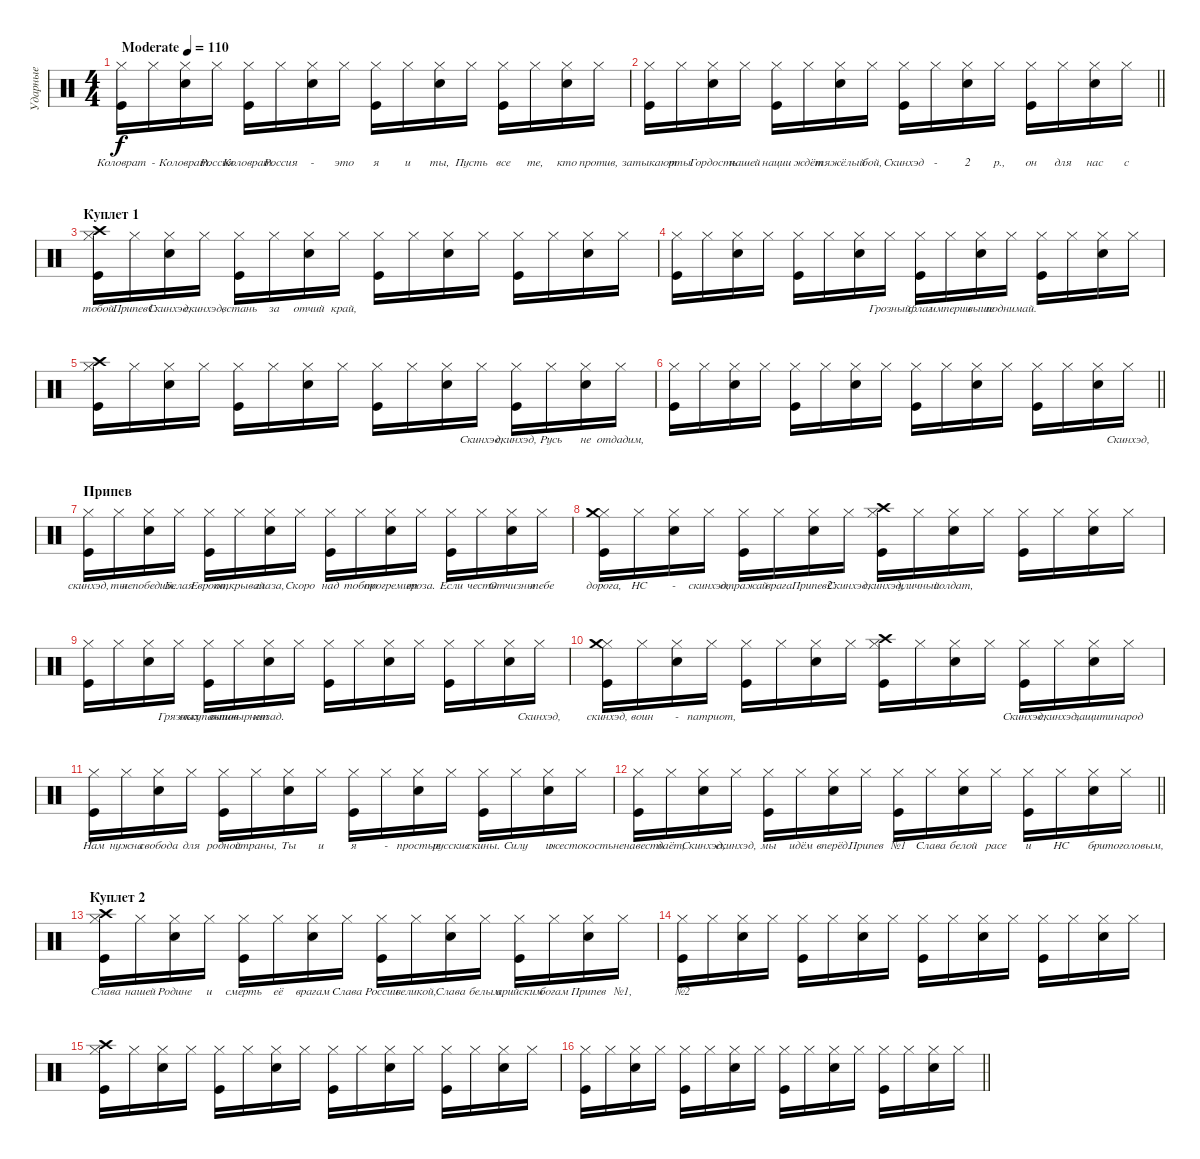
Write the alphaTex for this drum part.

\track ("Ударные" "Ударные") {instrument percussion}
\staff {score}
\articulation defaults
\ts (4 4)
\tempo (110 "Moderate")
\clef neutral
\ks c
("Kick (hit)" "Hi-Hat (closed)").16{lyrics (0 "Коловрат") lyrics (1 "") lyrics (2 "") lyrics (3 "") lyrics (4 "") dy f} "Hi-Hat (closed)".16{lyrics (0 "-") lyrics (1 "") lyrics (2 "") lyrics (3 "") lyrics (4 "")} ("Snare (hit) 2" "Hi-Hat (closed)").16{lyrics (0 "Коловрат.") lyrics (1 "") lyrics (2 "") lyrics (3 "") lyrics (4 "")} "Hi-Hat (closed)".16{lyrics (0 "Россия") lyrics (1 "") lyrics (2 "") lyrics (3 "") lyrics (4 "")} ("Kick (hit)" "Hi-Hat (closed)").16{lyrics (0 "Коловрат.") lyrics (1 "") lyrics (2 "") lyrics (3 "") lyrics (4 "")} "Hi-Hat (closed)".16{lyrics (0 "Россия") lyrics (1 "") lyrics (2 "") lyrics (3 "") lyrics (4 "")} ("Snare (hit) 2" "Hi-Hat (closed)").16{lyrics (0 "-") lyrics (1 "") lyrics (2 "") lyrics (3 "") lyrics (4 "")} "Hi-Hat (closed)".16{lyrics (0 "это") lyrics (1 "") lyrics (2 "") lyrics (3 "") lyrics (4 "")} ("Kick (hit)" "Hi-Hat (closed)").16{lyrics (0 "я") lyrics (1 "") lyrics (2 "") lyrics (3 "") lyrics (4 "")} "Hi-Hat (closed)".16{lyrics (0 "и") lyrics (1 "") lyrics (2 "") lyrics (3 "") lyrics (4 "")} ("Snare (hit) 2" "Hi-Hat (closed)").16{lyrics (0 "ты,") lyrics (1 "") lyrics (2 "") lyrics (3 "") lyrics (4 "")} "Hi-Hat (closed)".16{lyrics (0 "Пусть") lyrics (1 "") lyrics (2 "") lyrics (3 "") lyrics (4 "")} ("Kick (hit)" "Hi-Hat (closed)").16{lyrics (0 "все") lyrics (1 "") lyrics (2 "") lyrics (3 "") lyrics (4 "")} "Hi-Hat (closed)".16{lyrics (0 "те,") lyrics (1 "") lyrics (2 "") lyrics (3 "") lyrics (4 "")} ("Snare (hit) 2" "Hi-Hat (closed)").16{lyrics (0 "кто") lyrics (1 "") lyrics (2 "") lyrics (3 "") lyrics (4 "")} "Hi-Hat (closed)".16{lyrics (0 "против,") lyrics (1 "") lyrics (2 "") lyrics (3 "") lyrics (4 "")} |
\barLineRight lightlight
("Kick (hit)" "Hi-Hat (closed)").16{lyrics (0 "затыкают") lyrics (1 "") lyrics (2 "") lyrics (3 "") lyrics (4 "")} "Hi-Hat (closed)".16{lyrics (0 "рты.") lyrics (1 "") lyrics (2 "") lyrics (3 "") lyrics (4 "")} ("Snare (hit) 2" "Hi-Hat (closed)").16{lyrics (0 "Гордость") lyrics (1 "") lyrics (2 "") lyrics (3 "") lyrics (4 "")} "Hi-Hat (closed)".16{lyrics (0 "нашей") lyrics (1 "") lyrics (2 "") lyrics (3 "") lyrics (4 "")} ("Kick (hit)" "Hi-Hat (closed)").16{lyrics (0 "нации") lyrics (1 "") lyrics (2 "") lyrics (3 "") lyrics (4 "")} "Hi-Hat (closed)".16{lyrics (0 "ждёт") lyrics (1 "") lyrics (2 "") lyrics (3 "") lyrics (4 "")} ("Snare (hit) 2" "Hi-Hat (closed)").16{lyrics (0 "тяжёлый") lyrics (1 "") lyrics (2 "") lyrics (3 "") lyrics (4 "")} "Hi-Hat (closed)".16{lyrics (0 "бой,") lyrics (1 "") lyrics (2 "") lyrics (3 "") lyrics (4 "")} ("Kick (hit)" "Hi-Hat (closed)").16{lyrics (0 "Скинхэд") lyrics (1 "") lyrics (2 "") lyrics (3 "") lyrics (4 "")} "Hi-Hat (closed)".16{lyrics (0 "-") lyrics (1 "") lyrics (2 "") lyrics (3 "") lyrics (4 "")} ("Snare (hit) 2" "Hi-Hat (closed)").16{lyrics (0 "2") lyrics (1 "") lyrics (2 "") lyrics (3 "") lyrics (4 "")} "Hi-Hat (closed)".16{lyrics (0 "р.,") lyrics (1 "") lyrics (2 "") lyrics (3 "") lyrics (4 "")} ("Kick (hit)" "Hi-Hat (closed)").16{lyrics (0 "он") lyrics (1 "") lyrics (2 "") lyrics (3 "") lyrics (4 "")} "Hi-Hat (closed)".16{lyrics (0 "для") lyrics (1 "") lyrics (2 "") lyrics (3 "") lyrics (4 "")} ("Snare (hit) 2" "Hi-Hat (closed)").16{lyrics (0 "нас") lyrics (1 "") lyrics (2 "") lyrics (3 "") lyrics (4 "")} "Hi-Hat (closed)".16{lyrics (0 "с") lyrics (1 "") lyrics (2 "") lyrics (3 "") lyrics (4 "")} |
\section ("" "Куплет 1")
("Kick (hit)" "Hi-Hat (closed)" "Crash high (hit)").16{lyrics (0 "тобой.") lyrics (1 "") lyrics (2 "") lyrics (3 "") lyrics (4 "")} "Hi-Hat (closed)".16{lyrics (0 "Припев1:") lyrics (1 "") lyrics (2 "") lyrics (3 "") lyrics (4 "")} ("Snare (hit) 2" "Hi-Hat (closed)").16{lyrics (0 "Скинхэд,") lyrics (1 "") lyrics (2 "") lyrics (3 "") lyrics (4 "")} "Hi-Hat (closed)".16{lyrics (0 "скинхэд,") lyrics (1 "") lyrics (2 "") lyrics (3 "") lyrics (4 "")} ("Kick (hit)" "Hi-Hat (closed)").16{lyrics (0 "встань") lyrics (1 "") lyrics (2 "") lyrics (3 "") lyrics (4 "")} "Hi-Hat (closed)".16{lyrics (0 "за") lyrics (1 "") lyrics (2 "") lyrics (3 "") lyrics (4 "")} ("Snare (hit) 2" "Hi-Hat (closed)").16{lyrics (0 "отчий") lyrics (1 "") lyrics (2 "") lyrics (3 "") lyrics (4 "")} "Hi-Hat (closed)".16{lyrics (0 "край,") lyrics (1 "") lyrics (2 "") lyrics (3 "") lyrics (4 "")} ("Kick (hit)" "Hi-Hat (closed)").16{lyrics (0 "") lyrics (1 "") lyrics (2 "") lyrics (3 "") lyrics (4 "")} "Hi-Hat (closed)".16{lyrics (0 "") lyrics (1 "") lyrics (2 "") lyrics (3 "") lyrics (4 "")} ("Snare (hit) 2" "Hi-Hat (closed)").16{lyrics (0 "") lyrics (1 "") lyrics (2 "") lyrics (3 "") lyrics (4 "")} "Hi-Hat (closed)".16{lyrics (0 "") lyrics (1 "") lyrics (2 "") lyrics (3 "") lyrics (4 "")} ("Kick (hit)" "Hi-Hat (closed)").16{lyrics (0 "") lyrics (1 "") lyrics (2 "") lyrics (3 "") lyrics (4 "")} "Hi-Hat (closed)".16{lyrics (0 "") lyrics (1 "") lyrics (2 "") lyrics (3 "") lyrics (4 "")} ("Snare (hit) 2" "Hi-Hat (closed)").16{lyrics (0 "") lyrics (1 "") lyrics (2 "") lyrics (3 "") lyrics (4 "")} "Hi-Hat (closed)".16{lyrics (0 "") lyrics (1 "") lyrics (2 "") lyrics (3 "") lyrics (4 "")} |
("Kick (hit)" "Hi-Hat (closed)").16{lyrics (0 "") lyrics (1 "") lyrics (2 "") lyrics (3 "") lyrics (4 "")} "Hi-Hat (closed)".16{lyrics (0 "") lyrics (1 "") lyrics (2 "") lyrics (3 "") lyrics (4 "")} ("Snare (hit) 2" "Hi-Hat (closed)").16{lyrics (0 "") lyrics (1 "") lyrics (2 "") lyrics (3 "") lyrics (4 "")} "Hi-Hat (closed)".16{lyrics (0 "") lyrics (1 "") lyrics (2 "") lyrics (3 "") lyrics (4 "")} ("Kick (hit)" "Hi-Hat (closed)").16{lyrics (0 "") lyrics (1 "") lyrics (2 "") lyrics (3 "") lyrics (4 "")} "Hi-Hat (closed)".16{lyrics (0 "") lyrics (1 "") lyrics (2 "") lyrics (3 "") lyrics (4 "")} ("Snare (hit) 2" "Hi-Hat (closed)").16{lyrics (0 "") lyrics (1 "") lyrics (2 "") lyrics (3 "") lyrics (4 "")} "Hi-Hat (closed)".16{lyrics (0 "Грозный") lyrics (1 "") lyrics (2 "") lyrics (3 "") lyrics (4 "")} ("Kick (hit)" "Hi-Hat (closed)").16{lyrics (0 "флаг") lyrics (1 "") lyrics (2 "") lyrics (3 "") lyrics (4 "")} "Hi-Hat (closed)".16{lyrics (0 "империи") lyrics (1 "") lyrics (2 "") lyrics (3 "") lyrics (4 "")} ("Snare (hit) 2" "Hi-Hat (closed)").16{lyrics (0 "выше") lyrics (1 "") lyrics (2 "") lyrics (3 "") lyrics (4 "")} "Hi-Hat (closed)".16{lyrics (0 "поднимай.") lyrics (1 "") lyrics (2 "") lyrics (3 "") lyrics (4 "")} ("Kick (hit)" "Hi-Hat (closed)").16{lyrics (0 "") lyrics (1 "") lyrics (2 "") lyrics (3 "") lyrics (4 "")} "Hi-Hat (closed)".16{lyrics (0 "") lyrics (1 "") lyrics (2 "") lyrics (3 "") lyrics (4 "")} ("Snare (hit) 2" "Hi-Hat (closed)").16{lyrics (0 "") lyrics (1 "") lyrics (2 "") lyrics (3 "") lyrics (4 "")} "Hi-Hat (closed)".16{lyrics (0 "") lyrics (1 "") lyrics (2 "") lyrics (3 "") lyrics (4 "")} |
("Kick (hit)" "Hi-Hat (closed)" "Crash high (hit)").16{lyrics (0 "") lyrics (1 "") lyrics (2 "") lyrics (3 "") lyrics (4 "")} "Hi-Hat (closed)".16{lyrics (0 "") lyrics (1 "") lyrics (2 "") lyrics (3 "") lyrics (4 "")} ("Snare (hit) 2" "Hi-Hat (closed)").16{lyrics (0 "") lyrics (1 "") lyrics (2 "") lyrics (3 "") lyrics (4 "")} "Hi-Hat (closed)".16{lyrics (0 "") lyrics (1 "") lyrics (2 "") lyrics (3 "") lyrics (4 "")} ("Kick (hit)" "Hi-Hat (closed)").16{lyrics (0 "") lyrics (1 "") lyrics (2 "") lyrics (3 "") lyrics (4 "")} "Hi-Hat (closed)".16{lyrics (0 "") lyrics (1 "") lyrics (2 "") lyrics (3 "") lyrics (4 "")} ("Snare (hit) 2" "Hi-Hat (closed)").16{lyrics (0 "") lyrics (1 "") lyrics (2 "") lyrics (3 "") lyrics (4 "")} "Hi-Hat (closed)".16{lyrics (0 "") lyrics (1 "") lyrics (2 "") lyrics (3 "") lyrics (4 "")} ("Kick (hit)" "Hi-Hat (closed)").16{lyrics (0 "") lyrics (1 "") lyrics (2 "") lyrics (3 "") lyrics (4 "")} "Hi-Hat (closed)".16{lyrics (0 "") lyrics (1 "") lyrics (2 "") lyrics (3 "") lyrics (4 "")} ("Snare (hit) 2" "Hi-Hat (closed)").16{lyrics (0 "") lyrics (1 "") lyrics (2 "") lyrics (3 "") lyrics (4 "")} "Hi-Hat (closed)".16{lyrics (0 "Скинхэд,") lyrics (1 "") lyrics (2 "") lyrics (3 "") lyrics (4 "")} ("Kick (hit)" "Hi-Hat (closed)").16{lyrics (0 "скинхэд,") lyrics (1 "") lyrics (2 "") lyrics (3 "") lyrics (4 "")} "Hi-Hat (closed)".16{lyrics (0 "Русь") lyrics (1 "") lyrics (2 "") lyrics (3 "") lyrics (4 "")} ("Snare (hit) 2" "Hi-Hat (closed)").16{lyrics (0 "не") lyrics (1 "") lyrics (2 "") lyrics (3 "") lyrics (4 "")} "Hi-Hat (closed)".16{lyrics (0 "отдадим,") lyrics (1 "") lyrics (2 "") lyrics (3 "") lyrics (4 "")} |
\barLineRight lightlight
("Kick (hit)" "Hi-Hat (closed)").16{lyrics (0 "") lyrics (1 "") lyrics (2 "") lyrics (3 "") lyrics (4 "")} "Hi-Hat (closed)".16{lyrics (0 "") lyrics (1 "") lyrics (2 "") lyrics (3 "") lyrics (4 "")} ("Snare (hit) 2" "Hi-Hat (closed)").16{lyrics (0 "") lyrics (1 "") lyrics (2 "") lyrics (3 "") lyrics (4 "")} "Hi-Hat (closed)".16{lyrics (0 "") lyrics (1 "") lyrics (2 "") lyrics (3 "") lyrics (4 "")} ("Kick (hit)" "Hi-Hat (closed)").16{lyrics (0 "") lyrics (1 "") lyrics (2 "") lyrics (3 "") lyrics (4 "")} "Hi-Hat (closed)".16{lyrics (0 "") lyrics (1 "") lyrics (2 "") lyrics (3 "") lyrics (4 "")} ("Snare (hit) 2" "Hi-Hat (closed)").16{lyrics (0 "") lyrics (1 "") lyrics (2 "") lyrics (3 "") lyrics (4 "")} "Hi-Hat (closed)".16{lyrics (0 "") lyrics (1 "") lyrics (2 "") lyrics (3 "") lyrics (4 "")} ("Kick (hit)" "Hi-Hat (closed)").16{lyrics (0 "") lyrics (1 "") lyrics (2 "") lyrics (3 "") lyrics (4 "")} "Hi-Hat (closed)".16{lyrics (0 "") lyrics (1 "") lyrics (2 "") lyrics (3 "") lyrics (4 "")} ("Snare (hit) 2" "Hi-Hat (closed)").16{lyrics (0 "") lyrics (1 "") lyrics (2 "") lyrics (3 "") lyrics (4 "")} "Hi-Hat (closed)".16{lyrics (0 "") lyrics (1 "") lyrics (2 "") lyrics (3 "") lyrics (4 "")} ("Kick (hit)" "Hi-Hat (closed)").16{lyrics (0 "") lyrics (1 "") lyrics (2 "") lyrics (3 "") lyrics (4 "")} "Hi-Hat (closed)".16{lyrics (0 "") lyrics (1 "") lyrics (2 "") lyrics (3 "") lyrics (4 "")} ("Snare (hit) 2" "Hi-Hat (closed)").16{lyrics (0 "") lyrics (1 "") lyrics (2 "") lyrics (3 "") lyrics (4 "")} "Hi-Hat (closed)".16{lyrics (0 "Скинхэд,") lyrics (1 "") lyrics (2 "") lyrics (3 "") lyrics (4 "")} |
\section ("" "Припев")
("Kick (hit)" "Hi-Hat (closed)").16{lyrics (0 "скинхэд,") lyrics (1 "") lyrics (2 "") lyrics (3 "") lyrics (4 "")} "Hi-Hat (closed)".16{lyrics (0 "ты") lyrics (1 "") lyrics (2 "") lyrics (3 "") lyrics (4 "")} ("Snare (hit) 2" "Hi-Hat (closed)").16{lyrics (0 "непобедим.") lyrics (1 "") lyrics (2 "") lyrics (3 "") lyrics (4 "")} "Hi-Hat (closed)".16{lyrics (0 "Белая") lyrics (1 "") lyrics (2 "") lyrics (3 "") lyrics (4 "")} ("Kick (hit)" "Hi-Hat (closed)").16{lyrics (0 "Европа,") lyrics (1 "") lyrics (2 "") lyrics (3 "") lyrics (4 "")} "Hi-Hat (closed)".16{lyrics (0 "открывай") lyrics (1 "") lyrics (2 "") lyrics (3 "") lyrics (4 "")} ("Snare (hit) 2" "Hi-Hat (closed)").16{lyrics (0 "глаза,") lyrics (1 "") lyrics (2 "") lyrics (3 "") lyrics (4 "")} "Hi-Hat (closed)".16{lyrics (0 "Скоро") lyrics (1 "") lyrics (2 "") lyrics (3 "") lyrics (4 "")} ("Kick (hit)" "Hi-Hat (closed)").16{lyrics (0 "над") lyrics (1 "") lyrics (2 "") lyrics (3 "") lyrics (4 "")} "Hi-Hat (closed)".16{lyrics (0 "тобою") lyrics (1 "") lyrics (2 "") lyrics (3 "") lyrics (4 "")} ("Snare (hit) 2" "Hi-Hat (closed)").16{lyrics (0 "прогремит") lyrics (1 "") lyrics (2 "") lyrics (3 "") lyrics (4 "")} "Hi-Hat (closed)".16{lyrics (0 "гроза.") lyrics (1 "") lyrics (2 "") lyrics (3 "") lyrics (4 "")} ("Kick (hit)" "Hi-Hat (closed)").16{lyrics (0 "Если") lyrics (1 "") lyrics (2 "") lyrics (3 "") lyrics (4 "")} "Hi-Hat (closed)".16{lyrics (0 "честь") lyrics (1 "") lyrics (2 "") lyrics (3 "") lyrics (4 "")} ("Snare (hit) 2" "Hi-Hat (closed)").16{lyrics (0 "Отчизны") lyrics (1 "") lyrics (2 "") lyrics (3 "") lyrics (4 "")} "Hi-Hat (closed)".16{lyrics (0 "тебе") lyrics (1 "") lyrics (2 "") lyrics (3 "") lyrics (4 "")} |
("Kick (hit)" "Hi-Hat (closed)" "Crash medium (hit)").16{lyrics (0 "дорога,") lyrics (1 "") lyrics (2 "") lyrics (3 "") lyrics (4 "")} "Hi-Hat (closed)".16{lyrics (0 "НС") lyrics (1 "") lyrics (2 "") lyrics (3 "") lyrics (4 "")} ("Snare (hit) 2" "Hi-Hat (closed)").16{lyrics (0 "-") lyrics (1 "") lyrics (2 "") lyrics (3 "") lyrics (4 "")} "Hi-Hat (closed)".16{lyrics (0 "скинхэд,") lyrics (1 "") lyrics (2 "") lyrics (3 "") lyrics (4 "")} ("Kick (hit)" "Hi-Hat (closed)").16{lyrics (0 "отражай") lyrics (1 "") lyrics (2 "") lyrics (3 "") lyrics (4 "")} "Hi-Hat (closed)".16{lyrics (0 "врага") lyrics (1 "") lyrics (2 "") lyrics (3 "") lyrics (4 "")} ("Snare (hit) 2" "Hi-Hat (closed)").16{lyrics (0 "Припев2:") lyrics (1 "") lyrics (2 "") lyrics (3 "") lyrics (4 "")} "Hi-Hat (closed)".16{lyrics (0 "Скинхэд,") lyrics (1 "") lyrics (2 "") lyrics (3 "") lyrics (4 "")} ("Kick (hit)" "Hi-Hat (closed)" "Crash high (hit)").16{lyrics (0 "скинхэд,") lyrics (1 "") lyrics (2 "") lyrics (3 "") lyrics (4 "")} "Hi-Hat (closed)".16{lyrics (0 "уличный") lyrics (1 "") lyrics (2 "") lyrics (3 "") lyrics (4 "")} ("Snare (hit) 2" "Hi-Hat (closed)").16{lyrics (0 "солдат,") lyrics (1 "") lyrics (2 "") lyrics (3 "") lyrics (4 "")} "Hi-Hat (closed)".16{lyrics (0 "") lyrics (1 "") lyrics (2 "") lyrics (3 "") lyrics (4 "")} ("Kick (hit)" "Hi-Hat (closed)").16{lyrics (0 "") lyrics (1 "") lyrics (2 "") lyrics (3 "") lyrics (4 "")} "Hi-Hat (closed)".16{lyrics (0 "") lyrics (1 "") lyrics (2 "") lyrics (3 "") lyrics (4 "")} ("Snare (hit) 2" "Hi-Hat (closed)").16{lyrics (0 "") lyrics (1 "") lyrics (2 "") lyrics (3 "") lyrics (4 "")} "Hi-Hat (closed)".16{lyrics (0 "") lyrics (1 "") lyrics (2 "") lyrics (3 "") lyrics (4 "")} |
("Kick (hit)" "Hi-Hat (closed)").16{lyrics (0 "") lyrics (1 "") lyrics (2 "") lyrics (3 "") lyrics (4 "")} "Hi-Hat (closed)".16{lyrics (0 "") lyrics (1 "") lyrics (2 "") lyrics (3 "") lyrics (4 "")} ("Snare (hit) 2" "Hi-Hat (closed)").16{lyrics (0 "") lyrics (1 "") lyrics (2 "") lyrics (3 "") lyrics (4 "")} "Hi-Hat (closed)".16{lyrics (0 "Грязных") lyrics (1 "") lyrics (2 "") lyrics (3 "") lyrics (4 "")} ("Kick (hit)" "Hi-Hat (closed)").16{lyrics (0 "оккупантов") lyrics (1 "") lyrics (2 "") lyrics (3 "") lyrics (4 "")} "Hi-Hat (closed)".16{lyrics (0 "вышвырнет") lyrics (1 "") lyrics (2 "") lyrics (3 "") lyrics (4 "")} ("Snare (hit) 2" "Hi-Hat (closed)").16{lyrics (0 "назад.") lyrics (1 "") lyrics (2 "") lyrics (3 "") lyrics (4 "")} "Hi-Hat (closed)".16{lyrics (0 "") lyrics (1 "") lyrics (2 "") lyrics (3 "") lyrics (4 "")} ("Kick (hit)" "Hi-Hat (closed)").16{lyrics (0 "") lyrics (1 "") lyrics (2 "") lyrics (3 "") lyrics (4 "")} "Hi-Hat (closed)".16{lyrics (0 "") lyrics (1 "") lyrics (2 "") lyrics (3 "") lyrics (4 "")} ("Snare (hit) 2" "Hi-Hat (closed)").16{lyrics (0 "") lyrics (1 "") lyrics (2 "") lyrics (3 "") lyrics (4 "")} "Hi-Hat (closed)".16{lyrics (0 "") lyrics (1 "") lyrics (2 "") lyrics (3 "") lyrics (4 "")} ("Kick (hit)" "Hi-Hat (closed)").16{lyrics (0 "") lyrics (1 "") lyrics (2 "") lyrics (3 "") lyrics (4 "")} "Hi-Hat (closed)".16{lyrics (0 "") lyrics (1 "") lyrics (2 "") lyrics (3 "") lyrics (4 "")} ("Snare (hit) 2" "Hi-Hat (closed)").16{lyrics (0 "") lyrics (1 "") lyrics (2 "") lyrics (3 "") lyrics (4 "")} "Hi-Hat (closed)".16{lyrics (0 "Скинхэд,") lyrics (1 "") lyrics (2 "") lyrics (3 "") lyrics (4 "")} |
("Kick (hit)" "Hi-Hat (closed)" "Crash medium (hit)").16{lyrics (0 "скинхэд,") lyrics (1 "") lyrics (2 "") lyrics (3 "") lyrics (4 "")} "Hi-Hat (closed)".16{lyrics (0 "воин") lyrics (1 "") lyrics (2 "") lyrics (3 "") lyrics (4 "")} ("Snare (hit) 2" "Hi-Hat (closed)").16{lyrics (0 "-") lyrics (1 "") lyrics (2 "") lyrics (3 "") lyrics (4 "")} "Hi-Hat (closed)".16{lyrics (0 "патриот,") lyrics (1 "") lyrics (2 "") lyrics (3 "") lyrics (4 "")} ("Kick (hit)" "Hi-Hat (closed)").16{lyrics (0 "") lyrics (1 "") lyrics (2 "") lyrics (3 "") lyrics (4 "")} "Hi-Hat (closed)".16{lyrics (0 "") lyrics (1 "") lyrics (2 "") lyrics (3 "") lyrics (4 "")} ("Snare (hit) 2" "Hi-Hat (closed)").16{lyrics (0 "") lyrics (1 "") lyrics (2 "") lyrics (3 "") lyrics (4 "")} "Hi-Hat (closed)".16{lyrics (0 "") lyrics (1 "") lyrics (2 "") lyrics (3 "") lyrics (4 "")} ("Kick (hit)" "Hi-Hat (closed)" "Crash high (hit)").16{lyrics (0 "") lyrics (1 "") lyrics (2 "") lyrics (3 "") lyrics (4 "")} "Hi-Hat (closed)".16{lyrics (0 "") lyrics (1 "") lyrics (2 "") lyrics (3 "") lyrics (4 "")} ("Snare (hit) 2" "Hi-Hat (closed)").16{lyrics (0 "") lyrics (1 "") lyrics (2 "") lyrics (3 "") lyrics (4 "")} "Hi-Hat (closed)".16{lyrics (0 "") lyrics (1 "") lyrics (2 "") lyrics (3 "") lyrics (4 "")} ("Kick (hit)" "Hi-Hat (closed)").16{lyrics (0 "Скинхэд,") lyrics (1 "") lyrics (2 "") lyrics (3 "") lyrics (4 "")} "Hi-Hat (closed)".16{lyrics (0 "скинхэд,") lyrics (1 "") lyrics (2 "") lyrics (3 "") lyrics (4 "")} ("Snare (hit) 2" "Hi-Hat (closed)").16{lyrics (0 "защити") lyrics (1 "") lyrics (2 "") lyrics (3 "") lyrics (4 "")} "Hi-Hat (closed)".16{lyrics (0 "народ") lyrics (1 "") lyrics (2 "") lyrics (3 "") lyrics (4 "")} |
("Kick (hit)" "Hi-Hat (closed)").16{lyrics (0 "Нам") lyrics (1 "") lyrics (2 "") lyrics (3 "") lyrics (4 "")} "Hi-Hat (closed)".16{lyrics (0 "нужна") lyrics (1 "") lyrics (2 "") lyrics (3 "") lyrics (4 "")} ("Snare (hit) 2" "Hi-Hat (closed)").16{lyrics (0 "свобода") lyrics (1 "") lyrics (2 "") lyrics (3 "") lyrics (4 "")} "Hi-Hat (closed)".16{lyrics (0 "для") lyrics (1 "") lyrics (2 "") lyrics (3 "") lyrics (4 "")} ("Kick (hit)" "Hi-Hat (closed)").16{lyrics (0 "родной") lyrics (1 "") lyrics (2 "") lyrics (3 "") lyrics (4 "")} "Hi-Hat (closed)".16{lyrics (0 "страны,") lyrics (1 "") lyrics (2 "") lyrics (3 "") lyrics (4 "")} ("Snare (hit) 2" "Hi-Hat (closed)").16{lyrics (0 "Ты") lyrics (1 "") lyrics (2 "") lyrics (3 "") lyrics (4 "")} "Hi-Hat (closed)".16{lyrics (0 "и") lyrics (1 "") lyrics (2 "") lyrics (3 "") lyrics (4 "")} ("Kick (hit)" "Hi-Hat (closed)").16{lyrics (0 "я") lyrics (1 "") lyrics (2 "") lyrics (3 "") lyrics (4 "")} "Hi-Hat (closed)".16{lyrics (0 "-") lyrics (1 "") lyrics (2 "") lyrics (3 "") lyrics (4 "")} ("Snare (hit) 2" "Hi-Hat (closed)").16{lyrics (0 "простые") lyrics (1 "") lyrics (2 "") lyrics (3 "") lyrics (4 "")} "Hi-Hat (closed)".16{lyrics (0 "русские") lyrics (1 "") lyrics (2 "") lyrics (3 "") lyrics (4 "")} ("Kick (hit)" "Hi-Hat (closed)").16{lyrics (0 "скины.") lyrics (1 "") lyrics (2 "") lyrics (3 "") lyrics (4 "")} "Hi-Hat (closed)".16{lyrics (0 "Силу") lyrics (1 "") lyrics (2 "") lyrics (3 "") lyrics (4 "")} ("Snare (hit) 2" "Hi-Hat (closed)").16{lyrics (0 "и") lyrics (1 "") lyrics (2 "") lyrics (3 "") lyrics (4 "")} "Hi-Hat (closed)".16{lyrics (0 "жестокость") lyrics (1 "") lyrics (2 "") lyrics (3 "") lyrics (4 "")} |
\barLineRight lightlight
("Kick (hit)" "Hi-Hat (closed)").16{lyrics (0 "ненавесть") lyrics (1 "") lyrics (2 "") lyrics (3 "") lyrics (4 "")} "Hi-Hat (closed)".16{lyrics (0 "даёт,") lyrics (1 "") lyrics (2 "") lyrics (3 "") lyrics (4 "")} ("Snare (hit) 2" "Hi-Hat (closed)").16{lyrics (0 "Скинхэд,") lyrics (1 "") lyrics (2 "") lyrics (3 "") lyrics (4 "")} "Hi-Hat (closed)".16{lyrics (0 "скинхэд,") lyrics (1 "") lyrics (2 "") lyrics (3 "") lyrics (4 "")} ("Kick (hit)" "Hi-Hat (closed)").16{lyrics (0 "мы") lyrics (1 "") lyrics (2 "") lyrics (3 "") lyrics (4 "")} "Hi-Hat (closed)".16{lyrics (0 "идём") lyrics (1 "") lyrics (2 "") lyrics (3 "") lyrics (4 "")} ("Snare (hit) 2" "Hi-Hat (closed)").16{lyrics (0 "вперёд.") lyrics (1 "") lyrics (2 "") lyrics (3 "") lyrics (4 "")} "Hi-Hat (closed)".16{lyrics (0 "Припев") lyrics (1 "") lyrics (2 "") lyrics (3 "") lyrics (4 "")} ("Kick (hit)" "Hi-Hat (closed)").16{lyrics (0 "№1") lyrics (1 "") lyrics (2 "") lyrics (3 "") lyrics (4 "")} "Hi-Hat (closed)".16{lyrics (0 "Слава") lyrics (1 "") lyrics (2 "") lyrics (3 "") lyrics (4 "")} ("Snare (hit) 2" "Hi-Hat (closed)").16{lyrics (0 "белой") lyrics (1 "") lyrics (2 "") lyrics (3 "") lyrics (4 "")} "Hi-Hat (closed)".16{lyrics (0 "расе") lyrics (1 "") lyrics (2 "") lyrics (3 "") lyrics (4 "")} ("Kick (hit)" "Hi-Hat (closed)").16{lyrics (0 "и") lyrics (1 "") lyrics (2 "") lyrics (3 "") lyrics (4 "")} "Hi-Hat (closed)".16{lyrics (0 "НС") lyrics (1 "") lyrics (2 "") lyrics (3 "") lyrics (4 "")} ("Snare (hit) 2" "Hi-Hat (closed)").16{lyrics (0 "-") lyrics (1 "") lyrics (2 "") lyrics (3 "") lyrics (4 "")} "Hi-Hat (closed)".16{lyrics (0 "бритоголовым,") lyrics (1 "") lyrics (2 "") lyrics (3 "") lyrics (4 "")} |
\section ("" "Куплет 2")
("Kick (hit)" "Hi-Hat (closed)" "Crash high (hit)").16{lyrics (0 "Слава") lyrics (1 "") lyrics (2 "") lyrics (3 "") lyrics (4 "")} "Hi-Hat (closed)".16{lyrics (0 "нашей") lyrics (1 "") lyrics (2 "") lyrics (3 "") lyrics (4 "")} ("Snare (hit) 2" "Hi-Hat (closed)").16{lyrics (0 "Родине") lyrics (1 "") lyrics (2 "") lyrics (3 "") lyrics (4 "")} "Hi-Hat (closed)".16{lyrics (0 "и") lyrics (1 "") lyrics (2 "") lyrics (3 "") lyrics (4 "")} ("Kick (hit)" "Hi-Hat (closed)").16{lyrics (0 "смерть") lyrics (1 "") lyrics (2 "") lyrics (3 "") lyrics (4 "")} "Hi-Hat (closed)".16{lyrics (0 "её") lyrics (1 "") lyrics (2 "") lyrics (3 "") lyrics (4 "")} ("Snare (hit) 2" "Hi-Hat (closed)").16{lyrics (0 "врагам") lyrics (1 "") lyrics (2 "") lyrics (3 "") lyrics (4 "")} "Hi-Hat (closed)".16{lyrics (0 "Слава") lyrics (1 "") lyrics (2 "") lyrics (3 "") lyrics (4 "")} ("Kick (hit)" "Hi-Hat (closed)").16{lyrics (0 "России") lyrics (1 "") lyrics (2 "") lyrics (3 "") lyrics (4 "")} "Hi-Hat (closed)".16{lyrics (0 "великой,") lyrics (1 "") lyrics (2 "") lyrics (3 "") lyrics (4 "")} ("Snare (hit) 2" "Hi-Hat (closed)").16{lyrics (0 "Слава") lyrics (1 "") lyrics (2 "") lyrics (3 "") lyrics (4 "")} "Hi-Hat (closed)".16{lyrics (0 "белым") lyrics (1 "") lyrics (2 "") lyrics (3 "") lyrics (4 "")} ("Kick (hit)" "Hi-Hat (closed)").16{lyrics (0 "арийским") lyrics (1 "") lyrics (2 "") lyrics (3 "") lyrics (4 "")} "Hi-Hat (closed)".16{lyrics (0 "богам") lyrics (1 "") lyrics (2 "") lyrics (3 "") lyrics (4 "")} ("Snare (hit) 2" "Hi-Hat (closed)").16{lyrics (0 "Припев") lyrics (1 "") lyrics (2 "") lyrics (3 "") lyrics (4 "")} "Hi-Hat (closed)".16{lyrics (0 "№1,") lyrics (1 "") lyrics (2 "") lyrics (3 "") lyrics (4 "")} |
("Kick (hit)" "Hi-Hat (closed)").16{lyrics (0 "№2") lyrics (1 "") lyrics (2 "") lyrics (3 "") lyrics (4 "")} "Hi-Hat (closed)".16 ("Snare (hit) 2" "Hi-Hat (closed)").16 "Hi-Hat (closed)".16 ("Kick (hit)" "Hi-Hat (closed)").16 "Hi-Hat (closed)".16 ("Snare (hit) 2" "Hi-Hat (closed)").16 "Hi-Hat (closed)".16 ("Kick (hit)" "Hi-Hat (closed)").16 "Hi-Hat (closed)".16 ("Snare (hit) 2" "Hi-Hat (closed)").16 "Hi-Hat (closed)".16 ("Kick (hit)" "Hi-Hat (closed)").16 "Hi-Hat (closed)".16 ("Snare (hit) 2" "Hi-Hat (closed)").16 "Hi-Hat (closed)".16 |
("Kick (hit)" "Hi-Hat (closed)" "Crash high (hit)").16 "Hi-Hat (closed)".16 ("Snare (hit) 2" "Hi-Hat (closed)").16 "Hi-Hat (closed)".16 ("Kick (hit)" "Hi-Hat (closed)").16 "Hi-Hat (closed)".16 ("Snare (hit) 2" "Hi-Hat (closed)").16 "Hi-Hat (closed)".16 ("Kick (hit)" "Hi-Hat (closed)").16 "Hi-Hat (closed)".16 ("Snare (hit) 2" "Hi-Hat (closed)").16 "Hi-Hat (closed)".16 ("Kick (hit)" "Hi-Hat (closed)").16 "Hi-Hat (closed)".16 ("Snare (hit) 2" "Hi-Hat (closed)").16 "Hi-Hat (closed)".16 |
\barLineRight lightlight
("Kick (hit)" "Hi-Hat (closed)").16 "Hi-Hat (closed)".16 ("Snare (hit) 2" "Hi-Hat (closed)").16 "Hi-Hat (closed)".16 ("Kick (hit)" "Hi-Hat (closed)").16 "Hi-Hat (closed)".16 ("Snare (hit) 2" "Hi-Hat (closed)").16 "Hi-Hat (closed)".16 ("Kick (hit)" "Hi-Hat (closed)").16 "Hi-Hat (closed)".16 ("Snare (hit) 2" "Hi-Hat (closed)").16 "Hi-Hat (closed)".16 ("Kick (hit)" "Hi-Hat (closed)").16 "Hi-Hat (closed)".16 ("Snare (hit) 2" "Hi-Hat (closed)").16 "Hi-Hat (closed)".16
